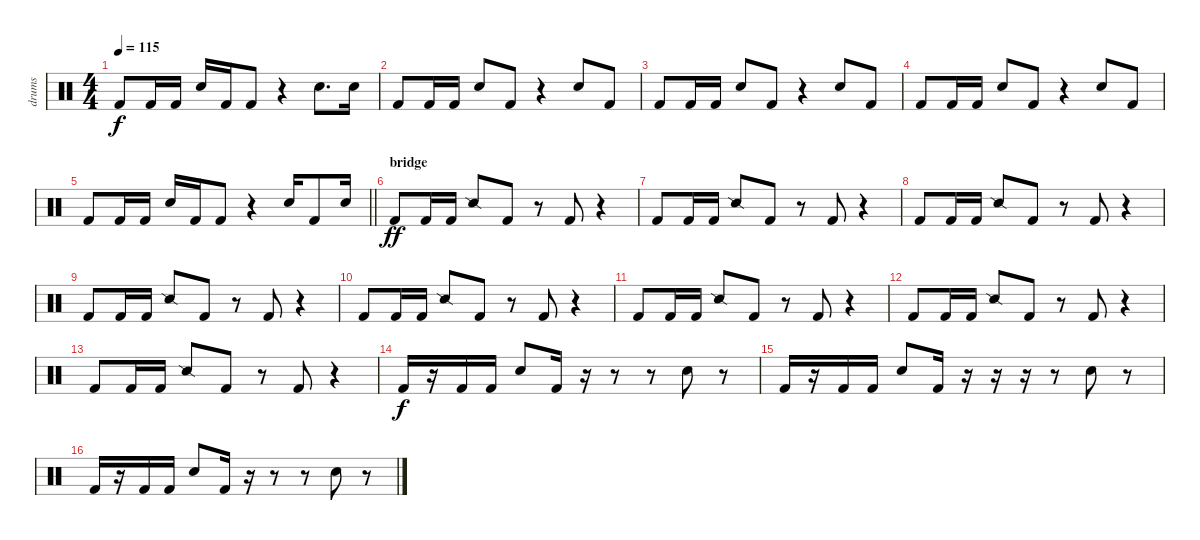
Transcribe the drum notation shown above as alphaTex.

\track ("drums" "drums") {instrument percussion}
\staff {score}
\articulation defaults
\ts (4 4)
\tempo 115
\clef neutral
\ks c "Kick (hit) 2".8{dy f} "Kick (hit) 2".16 "Kick (hit) 2".16 "Snare (hit) 2".16 "Kick (hit) 2".16 "Kick (hit) 2".8
r.4 "Snare (hit) 2".8{d} "Snare (hit) 2".16 |
"Kick (hit) 2".8 "Kick (hit) 2".16 "Kick (hit) 2".16 "Snare (hit) 2".8 "Kick (hit) 2".8 r.4 "Snare (hit) 2".8 "Kick (hit) 2".8 |
"Kick (hit) 2".8 "Kick (hit) 2".16 "Kick (hit) 2".16 "Snare (hit) 2".8 "Kick (hit) 2".8 r.4 "Snare (hit) 2".8 "Kick (hit) 2".8 |
"Kick (hit) 2".8 "Kick (hit) 2".16 "Kick (hit) 2".16 "Snare (hit) 2".8 "Kick (hit) 2".8 r.4 "Snare (hit) 2".8 "Kick (hit) 2".8 |
\barLineRight lightlight "Kick (hit) 2".8 "Kick (hit) 2".16 "Kick (hit) 2".16 "Snare (hit) 2".16 "Kick (hit) 2".16 "Kick (hit) 2".8
r.4 "Snare (hit) 2".16 "Kick (hit) 2".8 "Snare (hit) 2".16 |
\section ("" "bridge")
"Kick (hit) 2".8{dy ff} "Kick (hit) 2".16 "Kick (hit) 2".16 "Snare (side stick) 2".8 "Kick (hit) 2".8 r.8 "Kick (hit) 2".8 r.4 |
"Kick (hit) 2".8 "Kick (hit) 2".16 "Kick (hit) 2".16 "Snare (side stick) 2".8 "Kick (hit) 2".8 r.8 "Kick (hit) 2".8 r.4 |
"Kick (hit) 2".8 "Kick (hit) 2".16 "Kick (hit) 2".16 "Snare (side stick) 2".8 "Kick (hit) 2".8 r.8 "Kick (hit) 2".8 r.4 |
"Kick (hit) 2".8 "Kick (hit) 2".16 "Kick (hit) 2".16 "Snare (side stick) 2".8 "Kick (hit) 2".8 r.8 "Kick (hit) 2".8 r.4 |
"Kick (hit) 2".8 "Kick (hit) 2".16 "Kick (hit) 2".16 "Snare (side stick) 2".8 "Kick (hit) 2".8 r.8 "Kick (hit) 2".8 r.4 |
"Kick (hit) 2".8 "Kick (hit) 2".16 "Kick (hit) 2".16 "Snare (side stick) 2".8 "Kick (hit) 2".8 r.8 "Kick (hit) 2".8 r.4 |
"Kick (hit) 2".8 "Kick (hit) 2".16 "Kick (hit) 2".16 "Snare (side stick) 2".8 "Kick (hit) 2".8 r.8 "Kick (hit) 2".8 r.4 |
"Kick (hit) 2".8 "Kick (hit) 2".16 "Kick (hit) 2".16 "Snare (side stick) 2".8 "Kick (hit) 2".8 r.8 "Kick (hit) 2".8 r.4 |
"Kick (hit) 2".16{dy f} r.16 "Kick (hit) 2".16 "Kick (hit) 2".16 "Snare (hit) 2".8 "Kick (hit) 2".16 r.16 r.8 r.8 "Snare (hit) 2".8 r.8 |
"Kick (hit) 2".16 r.16 "Kick (hit) 2".16 "Kick (hit) 2".16 "Snare (hit) 2".8 "Kick (hit) 2".16 r.16 r.16 r.16 r.8 "Snare (hit) 2".8 r.8 |
"Kick (hit) 2".16 r.16 "Kick (hit) 2".16 "Kick (hit) 2".16 "Snare (hit) 2".8 "Kick (hit) 2".16 r.16 r.8 r.8 "Snare (hit) 2".8 r.8
